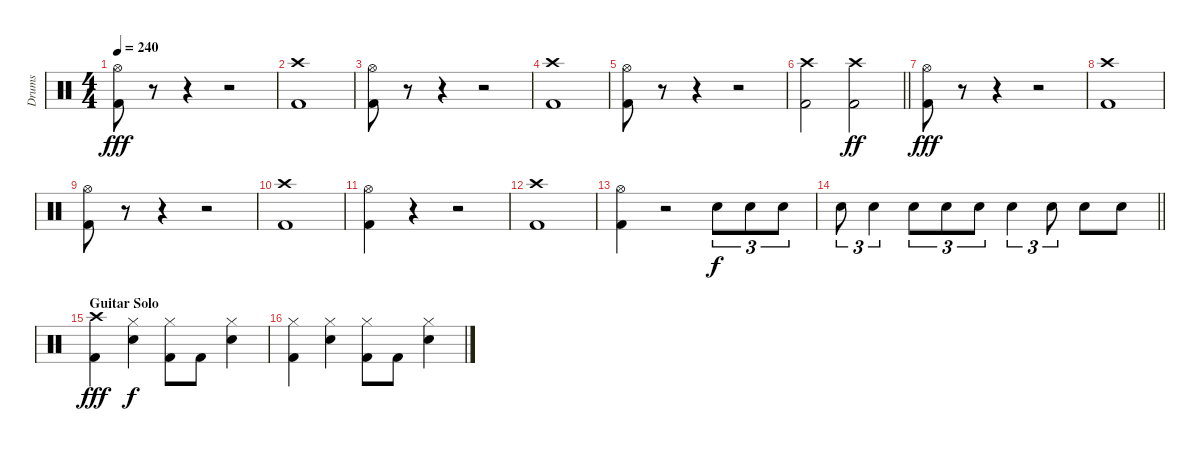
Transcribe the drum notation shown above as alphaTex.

\track ("Drums" "Drums") {instrument percussion}
\staff {score}
\articulation defaults
\ts (4 4)
\tempo 240
\clef neutral
\ks c
("Hi-Hat (open)" "Kick (hit) 2").8{dy fff} r.8 r.4 r.2 |
("Crash high (hit)" "Kick (hit) 2").1 |
("Hi-Hat (open)" "Kick (hit) 2").8 r.8 r.4 r.2 |
("Crash high (hit)" "Kick (hit) 2").1 |
("Hi-Hat (open)" "Kick (hit) 2").8 r.8 r.4 r.2 |
\barLineRight lightlight
("Crash high (hit)" "Kick (hit) 2").2 ("Crash high (hit)" "Kick (hit) 2").2{dy ff} |
("Hi-Hat (open)" "Kick (hit) 2").8{dy fff} r.8 r.4 r.2 |
("Crash high (hit)" "Kick (hit) 2").1 |
("Hi-Hat (open)" "Kick (hit) 2").8 r.8 r.4 r.2 |
("Crash high (hit)" "Kick (hit) 2").1 |
("Hi-Hat (open)" "Kick (hit) 2").4 r.4 r.2 |
("Crash high (hit)" "Kick (hit) 2").1 |
("Hi-Hat (open)" "Kick (hit) 2").4 r.2 "Snare (hit) 2".8{tu (3 2) dy f} "Snare (hit) 2".8{tu (3 2)} "Snare (hit) 2".8{tu (3 2)} |
\barLineRight lightlight "Snare (hit) 2".8{tu (3 2)} "Snare (hit) 2".4{tu (3 2)} "Snare (hit) 2".8{tu (3 2)} "Snare (hit) 2".8{tu (3 2)} "Snare (hit) 2".8{tu (3 2)} "Snare (hit) 2".4{tu (3 2)} "Snare (hit) 2".8{tu (3 2)} "Snare (hit) 2".8 "Snare (hit) 2".8
|
\section ("" "Guitar Solo")
("Crash high (hit)" "Kick (hit) 2").4{dy fff} ("Hi-Hat (closed)" "Snare (hit) 2").4{dy f} ("Hi-Hat (closed)" "Kick (hit) 2").8 "Kick (hit) 2".8 ("Hi-Hat (closed)" "Snare (hit) 2").4 |
("Hi-Hat (closed)" "Kick (hit) 2").4 ("Hi-Hat (closed)" "Snare (hit) 2").4 ("Hi-Hat (closed)" "Kick (hit) 2").8 "Kick (hit) 2".8 ("Hi-Hat (closed)" "Snare (hit) 2").4
